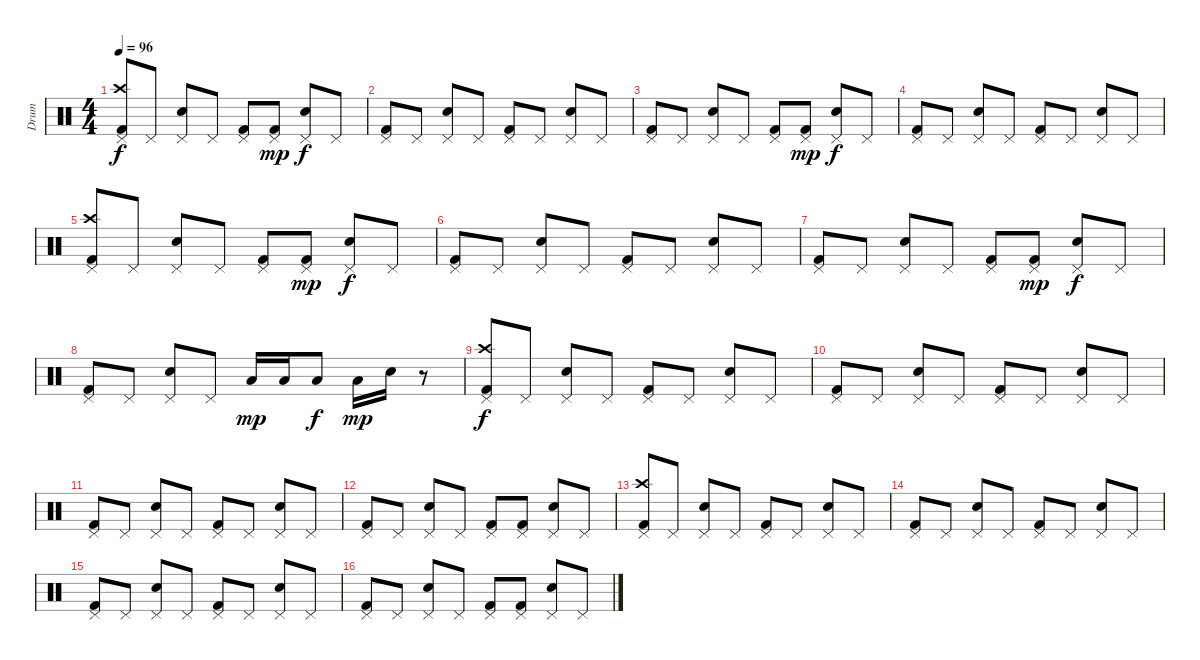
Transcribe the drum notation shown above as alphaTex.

\track ("Drum" "Drum") {instrument percussion}
\staff {score}
\articulation defaults
\ts (4 4)
\tempo 96
\clef neutral
\ks c
("Pedal Hi-Hat (hit)" "Crash high (hit)" "Kick (hit) 2").8{dy f} "Pedal Hi-Hat (hit)".8 ("Pedal Hi-Hat (hit)" "Snare (hit) 2").8 "Pedal Hi-Hat (hit)".8 ("Pedal Hi-Hat (hit)" "Kick (hit) 2").8 ("Pedal Hi-Hat (hit)" "Kick (hit) 2").8{dy mp} ("Pedal Hi-Hat (hit)" "Snare (hit) 2").8{dy f} "Pedal Hi-Hat (hit)".8 |
("Pedal Hi-Hat (hit)" "Kick (hit) 2").8 "Pedal Hi-Hat (hit)".8 ("Pedal Hi-Hat (hit)" "Snare (hit) 2").8 "Pedal Hi-Hat (hit)".8 ("Pedal Hi-Hat (hit)" "Kick (hit) 2").8 "Pedal Hi-Hat (hit)".8 ("Pedal Hi-Hat (hit)" "Snare (hit) 2").8 "Pedal Hi-Hat (hit)".8 |
("Pedal Hi-Hat (hit)" "Kick (hit) 2").8 "Pedal Hi-Hat (hit)".8 ("Pedal Hi-Hat (hit)" "Snare (hit) 2").8 "Pedal Hi-Hat (hit)".8 ("Pedal Hi-Hat (hit)" "Kick (hit) 2").8 ("Pedal Hi-Hat (hit)" "Kick (hit) 2").8{dy mp} ("Pedal Hi-Hat (hit)" "Snare (hit) 2").8{dy f} "Pedal Hi-Hat (hit)".8 |
("Pedal Hi-Hat (hit)" "Kick (hit) 2").8 "Pedal Hi-Hat (hit)".8 ("Pedal Hi-Hat (hit)" "Snare (hit) 2").8 "Pedal Hi-Hat (hit)".8 ("Pedal Hi-Hat (hit)" "Kick (hit) 2").8 "Pedal Hi-Hat (hit)".8 ("Pedal Hi-Hat (hit)" "Snare (hit) 2").8 "Pedal Hi-Hat (hit)".8 |
("Pedal Hi-Hat (hit)" "Crash high (hit)" "Kick (hit) 2").8 "Pedal Hi-Hat (hit)".8 ("Pedal Hi-Hat (hit)" "Snare (hit) 2").8 "Pedal Hi-Hat (hit)".8 ("Pedal Hi-Hat (hit)" "Kick (hit) 2").8 ("Pedal Hi-Hat (hit)" "Kick (hit) 2").8{dy mp} ("Pedal Hi-Hat (hit)" "Snare (hit) 2").8{dy f} "Pedal Hi-Hat (hit)".8 |
("Pedal Hi-Hat (hit)" "Kick (hit) 2").8 "Pedal Hi-Hat (hit)".8 ("Pedal Hi-Hat (hit)" "Snare (hit) 2").8 "Pedal Hi-Hat (hit)".8 ("Pedal Hi-Hat (hit)" "Kick (hit) 2").8 "Pedal Hi-Hat (hit)".8 ("Pedal Hi-Hat (hit)" "Snare (hit) 2").8 "Pedal Hi-Hat (hit)".8 |
("Pedal Hi-Hat (hit)" "Kick (hit) 2").8 "Pedal Hi-Hat (hit)".8 ("Pedal Hi-Hat (hit)" "Snare (hit) 2").8 "Pedal Hi-Hat (hit)".8 ("Pedal Hi-Hat (hit)" "Kick (hit) 2").8 ("Pedal Hi-Hat (hit)" "Kick (hit) 2").8{dy mp} ("Pedal Hi-Hat (hit)" "Snare (hit) 2").8{dy f} "Pedal Hi-Hat (hit)".8 |
("Pedal Hi-Hat (hit)" "Kick (hit) 2").8 "Pedal Hi-Hat (hit)".8 ("Pedal Hi-Hat (hit)" "Snare (hit) 2").8 "Pedal Hi-Hat (hit)".8 "Low Tom (hit)".16{dy mp} "Low Tom (hit)".16 "Low Tom (hit)".8{dy f} "Low Tom (hit)".16{dy mp} "Snare (hit) 2".16 r.8 |
("Pedal Hi-Hat (hit)" "Crash high (hit)" "Kick (hit) 2").8{dy f} "Pedal Hi-Hat (hit)".8 ("Pedal Hi-Hat (hit)" "Snare (hit) 2").8 "Pedal Hi-Hat (hit)".8 ("Pedal Hi-Hat (hit)" "Kick (hit) 2").8 "Pedal Hi-Hat (hit)".8 ("Pedal Hi-Hat (hit)" "Snare (hit) 2").8 "Pedal Hi-Hat (hit)".8 |
("Pedal Hi-Hat (hit)" "Kick (hit) 2").8 "Pedal Hi-Hat (hit)".8 ("Pedal Hi-Hat (hit)" "Snare (hit) 2").8 "Pedal Hi-Hat (hit)".8 ("Pedal Hi-Hat (hit)" "Kick (hit) 2").8 "Pedal Hi-Hat (hit)".8 ("Pedal Hi-Hat (hit)" "Snare (hit) 2").8 "Pedal Hi-Hat (hit)".8 |
("Pedal Hi-Hat (hit)" "Kick (hit) 2").8 "Pedal Hi-Hat (hit)".8 ("Pedal Hi-Hat (hit)" "Snare (hit) 2").8 "Pedal Hi-Hat (hit)".8 ("Pedal Hi-Hat (hit)" "Kick (hit) 2").8 "Pedal Hi-Hat (hit)".8 ("Pedal Hi-Hat (hit)" "Snare (hit) 2").8 "Pedal Hi-Hat (hit)".8 |
("Pedal Hi-Hat (hit)" "Kick (hit) 2").8 "Pedal Hi-Hat (hit)".8 ("Pedal Hi-Hat (hit)" "Snare (hit) 2").8 "Pedal Hi-Hat (hit)".8 ("Pedal Hi-Hat (hit)" "Kick (hit) 2").8 ("Pedal Hi-Hat (hit)" "Kick (hit) 2").8 ("Pedal Hi-Hat (hit)" "Snare (hit) 2").8 "Pedal Hi-Hat (hit)".8 |
("Pedal Hi-Hat (hit)" "Crash high (hit)" "Kick (hit) 2").8 "Pedal Hi-Hat (hit)".8 ("Pedal Hi-Hat (hit)" "Snare (hit) 2").8 "Pedal Hi-Hat (hit)".8 ("Pedal Hi-Hat (hit)" "Kick (hit) 2").8 "Pedal Hi-Hat (hit)".8 ("Pedal Hi-Hat (hit)" "Snare (hit) 2").8 "Pedal Hi-Hat (hit)".8 |
("Pedal Hi-Hat (hit)" "Kick (hit) 2").8 "Pedal Hi-Hat (hit)".8 ("Pedal Hi-Hat (hit)" "Snare (hit) 2").8 "Pedal Hi-Hat (hit)".8 ("Pedal Hi-Hat (hit)" "Kick (hit) 2").8 "Pedal Hi-Hat (hit)".8 ("Pedal Hi-Hat (hit)" "Snare (hit) 2").8 "Pedal Hi-Hat (hit)".8 |
("Pedal Hi-Hat (hit)" "Kick (hit) 2").8 "Pedal Hi-Hat (hit)".8 ("Pedal Hi-Hat (hit)" "Snare (hit) 2").8 "Pedal Hi-Hat (hit)".8 ("Pedal Hi-Hat (hit)" "Kick (hit) 2").8 "Pedal Hi-Hat (hit)".8 ("Pedal Hi-Hat (hit)" "Snare (hit) 2").8 "Pedal Hi-Hat (hit)".8 |
("Pedal Hi-Hat (hit)" "Kick (hit) 2").8 "Pedal Hi-Hat (hit)".8 ("Pedal Hi-Hat (hit)" "Snare (hit) 2").8 "Pedal Hi-Hat (hit)".8 ("Pedal Hi-Hat (hit)" "Kick (hit) 2").8 ("Pedal Hi-Hat (hit)" "Kick (hit) 2").8 ("Pedal Hi-Hat (hit)" "Snare (hit) 2").8 "Pedal Hi-Hat (hit)".8
